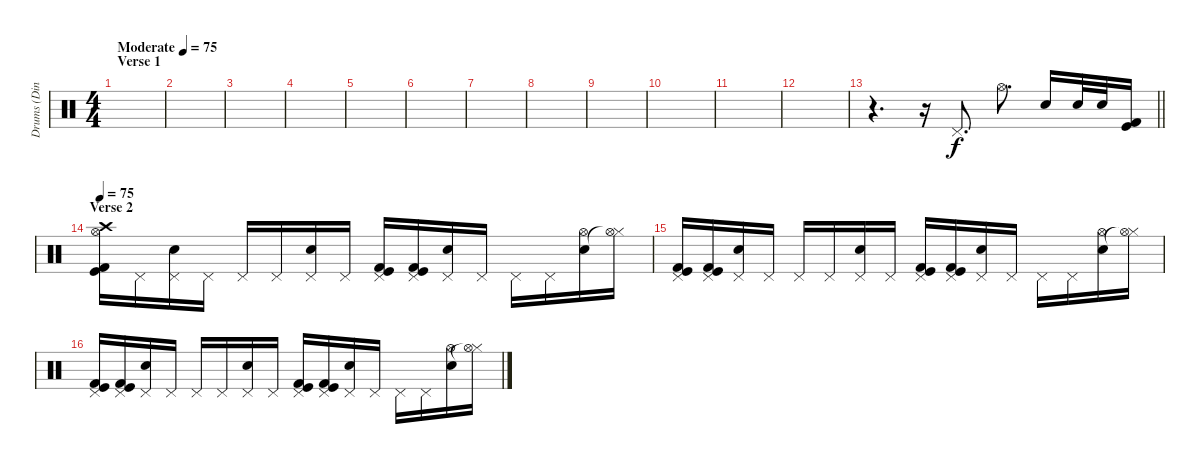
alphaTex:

\track ("Drums (Din-din)" "Drums (Din") {instrument percussion}
\staff {score}
\articulation defaults
\ts (4 4)
\section ("" "Verse 1")
\tempo (75 "Moderate")
\tempo 73
\tempo (75 "Moderate")
\clef neutral
\ks c
|
|
|
|
|
|
|
|
|
|
|
|
\barLineRight lightlight
r.4{d} r.16 "Pedal Hi-Hat (hit)".8{d} "Hi-Hat (open)".8{d} "Snare (hit) 2".16 "Snare (hit) 2".32 "Snare (hit) 2".32 ("Kick (hit)" "Kick (hit) 2").16 |
\section ("" "Verse 2")
\tempo 75
("Crash high (hit)" "Hi-Hat (open)" "Kick (hit)" "Kick (hit) 2").16 "Pedal Hi-Hat (hit)".16 ("Pedal Hi-Hat (hit)" "Snare (hit) 2").16 "Pedal Hi-Hat (hit)".16 "Pedal Hi-Hat (hit)".16 "Pedal Hi-Hat (hit)".16 ("Pedal Hi-Hat (hit)" "Snare (hit) 2").16 "Pedal Hi-Hat (hit)".16 ("Pedal Hi-Hat (hit)" "Kick (hit)" "Kick (hit) 2").16 ("Pedal Hi-Hat (hit)" "Kick (hit)" "Kick (hit) 2").16 ("Pedal Hi-Hat (hit)" "Snare (hit) 2").16 "Pedal Hi-Hat (hit)".16 "Pedal Hi-Hat (hit)".16 "Pedal Hi-Hat (hit)".16 ("Hi-Hat (open)" "Snare (hit) 2").16 ("Hi-Hat (closed)" "Hi-Hat (open)"{t}).16 |
("Pedal Hi-Hat (hit)" "Kick (hit)" "Kick (hit) 2").16 ("Pedal Hi-Hat (hit)" "Kick (hit)" "Kick (hit) 2").16 ("Pedal Hi-Hat (hit)" "Snare (hit) 2").16 "Pedal Hi-Hat (hit)".16 "Pedal Hi-Hat (hit)".16 "Pedal Hi-Hat (hit)".16 ("Pedal Hi-Hat (hit)" "Snare (hit) 2").16 "Pedal Hi-Hat (hit)".16 ("Pedal Hi-Hat (hit)" "Kick (hit)" "Kick (hit) 2").16 ("Pedal Hi-Hat (hit)" "Kick (hit)" "Kick (hit) 2").16 ("Pedal Hi-Hat (hit)" "Snare (hit) 2").16 "Pedal Hi-Hat (hit)".16 "Pedal Hi-Hat (hit)".16 "Pedal Hi-Hat (hit)".16 ("Hi-Hat (open)" "Snare (hit) 2").16 ("Hi-Hat (closed)" "Hi-Hat (open)"{t}).16 |
("Pedal Hi-Hat (hit)" "Kick (hit)" "Kick (hit) 2").16 ("Pedal Hi-Hat (hit)" "Kick (hit)" "Kick (hit) 2").16 ("Pedal Hi-Hat (hit)" "Snare (hit) 2").16 "Pedal Hi-Hat (hit)".16 "Pedal Hi-Hat (hit)".16 "Pedal Hi-Hat (hit)".16 ("Pedal Hi-Hat (hit)" "Snare (hit) 2").16 "Pedal Hi-Hat (hit)".16 ("Pedal Hi-Hat (hit)" "Kick (hit)" "Kick (hit) 2").16 ("Pedal Hi-Hat (hit)" "Kick (hit)" "Kick (hit) 2").16 ("Pedal Hi-Hat (hit)" "Snare (hit) 2").16 "Pedal Hi-Hat (hit)".16 "Pedal Hi-Hat (hit)".16 "Pedal Hi-Hat (hit)".16 ("Hi-Hat (open)" "Snare (hit) 2").16 ("Hi-Hat (closed)" "Hi-Hat (open)"{t}).16
